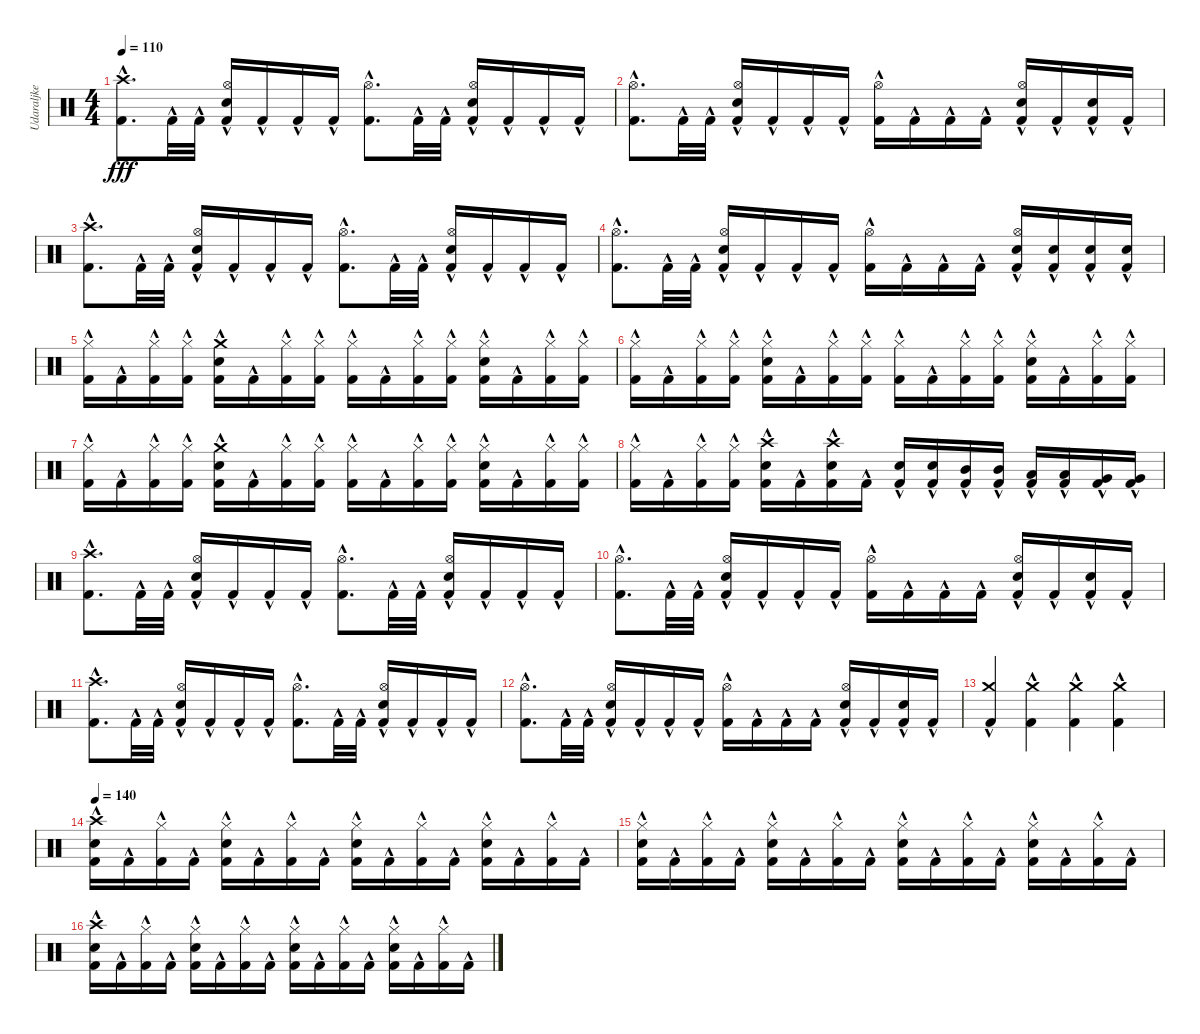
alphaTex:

\track ("Udaraljke" "Udaraljke") {instrument percussion}
\staff {score}
\articulation defaults
\ts (4 4)
\tempo 110
\clef neutral
\ks c
("Crash high (hit)" "Kick (hit) 2"{hac}).8{d dy fff} "Kick (hit) 2"{hac}.32 "Kick (hit) 2"{hac}.32 ("Hi-Hat (open)" "Snare (hit) 2"{hac} "Kick (hit) 2"{hac}).16 "Kick (hit) 2"{hac}.16 "Kick (hit) 2"{hac}.16 "Kick (hit) 2"{hac}.16 ("Hi-Hat (open)" "Kick (hit) 2"{hac}).8{d} "Kick (hit) 2"{hac}.32 "Kick (hit) 2"{hac}.32 ("Hi-Hat (open)" "Snare (hit) 2"{hac} "Kick (hit) 2"{hac}).16 "Kick (hit) 2"{hac}.16 "Kick (hit) 2"{hac}.16 "Kick (hit) 2"{hac}.16 |
("Hi-Hat (open)" "Kick (hit) 2"{hac}).8{d} "Kick (hit) 2"{hac}.32 "Kick (hit) 2"{hac}.32 ("Hi-Hat (open)" "Snare (hit) 2"{hac} "Kick (hit) 2"{hac}).16 "Kick (hit) 2"{hac}.16 "Kick (hit) 2"{hac}.16 "Kick (hit) 2"{hac}.16 ("Hi-Hat (open)" "Kick (hit) 2"{hac}).16 "Kick (hit) 2"{hac}.16 "Kick (hit) 2"{hac}.16 "Kick (hit) 2"{hac}.16 ("Hi-Hat (open)" "Snare (hit) 2"{hac} "Kick (hit) 2"{hac}).16 "Kick (hit) 2"{hac}.16 ("Snare (hit) 2"{hac} "Kick (hit) 2"{hac}).16 "Kick (hit) 2"{hac}.16 |
("Crash high (hit)" "Kick (hit) 2"{hac}).8{d} "Kick (hit) 2"{hac}.32 "Kick (hit) 2"{hac}.32 ("Hi-Hat (open)" "Snare (hit) 2"{hac} "Kick (hit) 2"{hac}).16 "Kick (hit) 2"{hac}.16 "Kick (hit) 2"{hac}.16 "Kick (hit) 2"{hac}.16 ("Hi-Hat (open)" "Kick (hit) 2"{hac}).8{d} "Kick (hit) 2"{hac}.32 "Kick (hit) 2"{hac}.32 ("Hi-Hat (open)" "Snare (hit) 2"{hac} "Kick (hit) 2"{hac}).16 "Kick (hit) 2"{hac}.16 "Kick (hit) 2"{hac}.16 "Kick (hit) 2"{hac}.16 |
("Hi-Hat (open)" "Kick (hit) 2"{hac}).8{d} "Kick (hit) 2"{hac}.32 "Kick (hit) 2"{hac}.32 ("Hi-Hat (open)" "Snare (hit) 2"{hac} "Kick (hit) 2"{hac}).16 "Kick (hit) 2"{hac}.16 "Kick (hit) 2"{hac}.16 "Kick (hit) 2"{hac}.16 ("Hi-Hat (open)" "Kick (hit) 2"{hac}).16 "Kick (hit) 2"{hac}.16 "Kick (hit) 2"{hac}.16 "Kick (hit) 2"{hac}.16 ("Hi-Hat (open)" "Snare (hit) 2"{hac} "Kick (hit) 2"{hac}).16 ("Snare (hit) 2"{hac} "Kick (hit) 2"{hac}).16 ("Snare (hit) 2"{hac} "Kick (hit) 2"{hac}).16 ("Snare (hit) 2"{hac} "Kick (hit) 2"{hac}).16 |
("Hi-Hat (closed)" "Kick (hit) 2"{hac}).16 "Kick (hit) 2"{hac}.16 ("Hi-Hat (closed)" "Kick (hit) 2"{hac}).16 ("Hi-Hat (closed)" "Kick (hit) 2"{hac}).16 ("Crash medium (hit)" "Snare (hit) 2"{hac} "Kick (hit) 2"{hac}).16 "Kick (hit) 2"{hac}.16 ("Hi-Hat (closed)" "Kick (hit) 2"{hac}).16 ("Hi-Hat (closed)" "Kick (hit) 2"{hac}).16 ("Hi-Hat (closed)" "Kick (hit) 2"{hac}).16 "Kick (hit) 2"{hac}.16 ("Hi-Hat (closed)" "Kick (hit) 2"{hac}).16 ("Hi-Hat (closed)" "Kick (hit) 2"{hac}).16 ("Hi-Hat (closed)" "Snare (hit) 2"{hac} "Kick (hit) 2"{hac}).16 "Kick (hit) 2"{hac}.16 ("Hi-Hat (closed)" "Kick (hit) 2"{hac}).16 ("Hi-Hat (closed)" "Kick (hit) 2"{hac}).16 |
("Hi-Hat (closed)" "Kick (hit) 2"{hac}).16 "Kick (hit) 2"{hac}.16 ("Hi-Hat (closed)" "Kick (hit) 2"{hac}).16 ("Hi-Hat (closed)" "Kick (hit) 2"{hac}).16 ("Hi-Hat (closed)" "Snare (hit) 2"{hac} "Kick (hit) 2"{hac}).16 "Kick (hit) 2"{hac}.16 ("Hi-Hat (closed)" "Kick (hit) 2"{hac}).16 ("Hi-Hat (closed)" "Kick (hit) 2"{hac}).16 ("Hi-Hat (closed)" "Kick (hit) 2"{hac}).16 "Kick (hit) 2"{hac}.16 ("Hi-Hat (closed)" "Kick (hit) 2"{hac}).16 ("Hi-Hat (closed)" "Kick (hit) 2"{hac}).16 ("Hi-Hat (closed)" "Snare (hit) 2"{hac} "Kick (hit) 2"{hac}).16 "Kick (hit) 2"{hac}.16 ("Hi-Hat (closed)" "Kick (hit) 2"{hac}).16 ("Hi-Hat (closed)" "Kick (hit) 2"{hac}).16 |
("Hi-Hat (closed)" "Kick (hit) 2"{hac}).16 "Kick (hit) 2"{hac}.16 ("Hi-Hat (closed)" "Kick (hit) 2"{hac}).16 ("Hi-Hat (closed)" "Kick (hit) 2"{hac}).16 ("Crash medium (hit)" "Snare (hit) 2"{hac} "Kick (hit) 2"{hac}).16 "Kick (hit) 2"{hac}.16 ("Hi-Hat (closed)" "Kick (hit) 2"{hac}).16 ("Hi-Hat (closed)" "Kick (hit) 2"{hac}).16 ("Hi-Hat (closed)" "Kick (hit) 2"{hac}).16 "Kick (hit) 2"{hac}.16 ("Hi-Hat (closed)" "Kick (hit) 2"{hac}).16 ("Hi-Hat (closed)" "Kick (hit) 2"{hac}).16 ("Hi-Hat (closed)" "Snare (hit) 2"{hac} "Kick (hit) 2"{hac}).16 "Kick (hit) 2"{hac}.16 ("Hi-Hat (closed)" "Kick (hit) 2"{hac}).16 ("Hi-Hat (closed)" "Kick (hit) 2"{hac}).16 |
("Hi-Hat (closed)" "Kick (hit) 2"{hac}).16 "Kick (hit) 2"{hac}.16 ("Hi-Hat (closed)" "Kick (hit) 2"{hac}).16 ("Hi-Hat (closed)" "Kick (hit) 2"{hac}).16 ("Crash high (hit)" "Snare (hit) 2"{hac} "Kick (hit) 2"{hac}).16 "Kick (hit) 2"{hac}.16 ("Crash high (hit)" "Snare (hit) 2"{hac} "Kick (hit) 2"{hac}).16 "Kick (hit) 2"{hac}.16 ("Snare (hit) 2"{hac} "Kick (hit) 2"{hac}).16 ("Snare (hit) 2"{hac} "Kick (hit) 2"{hac}).16 ("Mid Tom (hit)"{hac} "Kick (hit) 2"{hac}).16 ("Mid Tom (hit)"{hac} "Kick (hit) 2"{hac}).16 ("Low Tom (hit)"{hac} "Kick (hit) 2"{hac}).16 ("Low Tom (hit)"{hac} "Kick (hit) 2"{hac}).16 ("Very Low Tom (hit)"{hac} "Kick (hit) 2"{hac}).16 ("Very Low Tom (hit)"{hac} "Kick (hit) 2"{hac}).16 |
("Crash high (hit)" "Kick (hit) 2"{hac}).8{d} "Kick (hit) 2"{hac}.32 "Kick (hit) 2"{hac}.32 ("Hi-Hat (open)" "Snare (hit) 2"{hac} "Kick (hit) 2"{hac}).16 "Kick (hit) 2"{hac}.16 "Kick (hit) 2"{hac}.16 "Kick (hit) 2"{hac}.16 ("Hi-Hat (open)" "Kick (hit) 2"{hac}).8{d} "Kick (hit) 2"{hac}.32 "Kick (hit) 2"{hac}.32 ("Hi-Hat (open)" "Snare (hit) 2"{hac} "Kick (hit) 2"{hac}).16 "Kick (hit) 2"{hac}.16 "Kick (hit) 2"{hac}.16 "Kick (hit) 2"{hac}.16 |
("Hi-Hat (open)" "Kick (hit) 2"{hac}).8{d} "Kick (hit) 2"{hac}.32 "Kick (hit) 2"{hac}.32 ("Hi-Hat (open)" "Snare (hit) 2"{hac} "Kick (hit) 2"{hac}).16 "Kick (hit) 2"{hac}.16 "Kick (hit) 2"{hac}.16 "Kick (hit) 2"{hac}.16 ("Hi-Hat (open)" "Kick (hit) 2"{hac}).16 "Kick (hit) 2"{hac}.16 "Kick (hit) 2"{hac}.16 "Kick (hit) 2"{hac}.16 ("Hi-Hat (open)" "Snare (hit) 2"{hac} "Kick (hit) 2"{hac}).16 "Kick (hit) 2"{hac}.16 ("Snare (hit) 2"{hac} "Kick (hit) 2"{hac}).16 "Kick (hit) 2"{hac}.16 |
("Crash high (hit)" "Kick (hit) 2"{hac}).8{d} "Kick (hit) 2"{hac}.32 "Kick (hit) 2"{hac}.32 ("Hi-Hat (open)" "Snare (hit) 2"{hac} "Kick (hit) 2"{hac}).16 "Kick (hit) 2"{hac}.16 "Kick (hit) 2"{hac}.16 "Kick (hit) 2"{hac}.16 ("Hi-Hat (open)" "Kick (hit) 2"{hac}).8{d} "Kick (hit) 2"{hac}.32 "Kick (hit) 2"{hac}.32 ("Hi-Hat (open)" "Snare (hit) 2"{hac} "Kick (hit) 2"{hac}).16 "Kick (hit) 2"{hac}.16 "Kick (hit) 2"{hac}.16 "Kick (hit) 2"{hac}.16 |
("Hi-Hat (open)" "Kick (hit) 2"{hac}).8{d} "Kick (hit) 2"{hac}.32 "Kick (hit) 2"{hac}.32 ("Hi-Hat (open)" "Snare (hit) 2"{hac} "Kick (hit) 2"{hac}).16 "Kick (hit) 2"{hac}.16 "Kick (hit) 2"{hac}.16 "Kick (hit) 2"{hac}.16 ("Hi-Hat (open)" "Kick (hit) 2"{hac}).16 "Kick (hit) 2"{hac}.16 "Kick (hit) 2"{hac}.16 "Kick (hit) 2"{hac}.16 ("Hi-Hat (open)" "Snare (hit) 2"{hac} "Kick (hit) 2"{hac}).16 "Kick (hit) 2"{hac}.16 ("Snare (hit) 2"{hac} "Kick (hit) 2"{hac}).16 "Kick (hit) 2"{hac}.16 |
("Crash medium (hit)" "Kick (hit) 2"{hac}).4{beam Up} ("Crash medium (hit)" "Kick (hit) 2"{hac}).4 ("Crash medium (hit)" "Kick (hit) 2"{hac}).4 ("Crash medium (hit)" "Kick (hit) 2"{hac}).4 |
\tempo 140
("Crash high (hit)" "Snare (hit) 2"{hac} "Kick (hit) 2"{hac}).16 "Kick (hit) 2"{hac}.16 ("Hi-Hat (closed)" "Kick (hit) 2"{hac}).16 "Kick (hit) 2"{hac}.16 ("Hi-Hat (closed)" "Snare (hit) 2"{hac} "Kick (hit) 2"{hac}).16 "Kick (hit) 2"{hac}.16 ("Hi-Hat (closed)" "Kick (hit) 2"{hac}).16 "Kick (hit) 2"{hac}.16 ("Hi-Hat (closed)" "Snare (hit) 2"{hac} "Kick (hit) 2"{hac}).16 "Kick (hit) 2"{hac}.16 ("Hi-Hat (closed)" "Kick (hit) 2"{hac}).16 "Kick (hit) 2"{hac}.16 ("Hi-Hat (closed)" "Snare (hit) 2"{hac} "Kick (hit) 2"{hac}).16 "Kick (hit) 2"{hac}.16 ("Hi-Hat (closed)" "Kick (hit) 2"{hac}).16 "Kick (hit) 2"{hac}.16 |
("Hi-Hat (closed)" "Snare (hit) 2"{hac} "Kick (hit) 2"{hac}).16 "Kick (hit) 2"{hac}.16 ("Hi-Hat (closed)" "Kick (hit) 2"{hac}).16 "Kick (hit) 2"{hac}.16 ("Hi-Hat (closed)" "Snare (hit) 2"{hac} "Kick (hit) 2"{hac}).16 "Kick (hit) 2"{hac}.16 ("Hi-Hat (closed)" "Kick (hit) 2"{hac}).16 "Kick (hit) 2"{hac}.16 ("Hi-Hat (closed)" "Snare (hit) 2"{hac} "Kick (hit) 2"{hac}).16 "Kick (hit) 2"{hac}.16 ("Hi-Hat (closed)" "Kick (hit) 2"{hac}).16 "Kick (hit) 2"{hac}.16 ("Hi-Hat (closed)" "Snare (hit) 2"{hac} "Kick (hit) 2"{hac}).16 "Kick (hit) 2"{hac}.16 ("Hi-Hat (closed)" "Kick (hit) 2"{hac}).16 "Kick (hit) 2"{hac}.16 |
("Crash high (hit)" "Snare (hit) 2"{hac} "Kick (hit) 2"{hac}).16 "Kick (hit) 2"{hac}.16 ("Hi-Hat (closed)" "Kick (hit) 2"{hac}).16 "Kick (hit) 2"{hac}.16 ("Hi-Hat (closed)" "Snare (hit) 2"{hac} "Kick (hit) 2"{hac}).16 "Kick (hit) 2"{hac}.16 ("Hi-Hat (closed)" "Kick (hit) 2"{hac}).16 "Kick (hit) 2"{hac}.16 ("Hi-Hat (closed)" "Snare (hit) 2"{hac} "Kick (hit) 2"{hac}).16 "Kick (hit) 2"{hac}.16 ("Hi-Hat (closed)" "Kick (hit) 2"{hac}).16 "Kick (hit) 2"{hac}.16 ("Hi-Hat (closed)" "Snare (hit) 2"{hac} "Kick (hit) 2"{hac}).16 "Kick (hit) 2"{hac}.16 ("Hi-Hat (closed)" "Kick (hit) 2"{hac}).16 "Kick (hit) 2"{hac}.16
